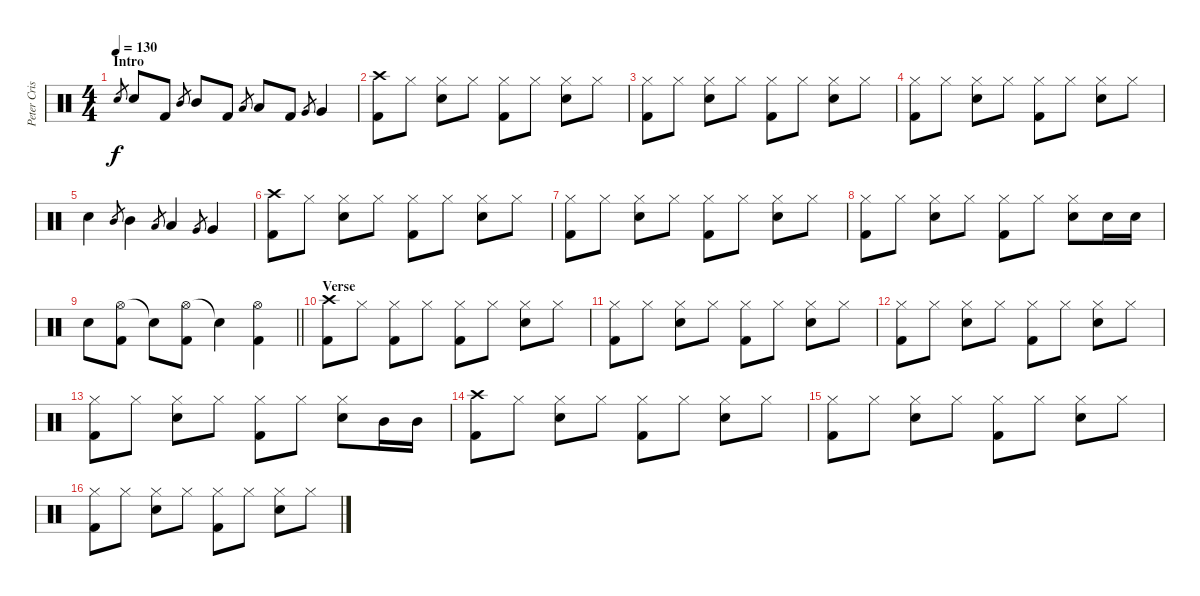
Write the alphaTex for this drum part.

\track ("Peter Criss" "Peter Cris") {instrument percussion}
\staff {score}
\articulation defaults
\ts (4 4)
\section ("" "Intro")
\tempo 130
\clef neutral
\ks c "Snare (hit) 2".8{gr dy f} "Snare (hit) 2".8 "Kick (hit) 2".8 "Mid Tom (hit)".8{gr} "Mid Tom (hit)".8 "Kick (hit) 2".8 "Low Tom (hit)".8{gr} "Low Tom (hit)".8 "Kick (hit) 2".8 "Very Low Tom (hit)".8{gr} "Very Low Tom (hit)".4
|
("Crash high (hit)" "Kick (hit) 2").8 "Hi-Hat (closed)".8 ("Hi-Hat (closed)" "Snare (hit) 2").8 "Hi-Hat (closed)".8 ("Hi-Hat (closed)" "Kick (hit) 2").8 "Hi-Hat (closed)".8 ("Hi-Hat (closed)" "Snare (hit) 2").8 "Hi-Hat (closed)".8 |
("Hi-Hat (closed)" "Kick (hit) 2").8 "Hi-Hat (closed)".8 ("Hi-Hat (closed)" "Snare (hit) 2").8 "Hi-Hat (closed)".8 ("Hi-Hat (closed)" "Kick (hit) 2").8 "Hi-Hat (closed)".8 ("Hi-Hat (closed)" "Snare (hit) 2").8 "Hi-Hat (closed)".8 |
("Hi-Hat (closed)" "Kick (hit) 2").8 "Hi-Hat (closed)".8 ("Hi-Hat (closed)" "Snare (hit) 2").8 "Hi-Hat (closed)".8 ("Hi-Hat (closed)" "Kick (hit) 2").8 "Hi-Hat (closed)".8 ("Hi-Hat (closed)" "Snare (hit) 2").8 "Hi-Hat (closed)".8 |
"Snare (hit) 2".4 "Mid Tom (hit)".8{gr} "Mid Tom (hit)".4 "Low Tom (hit)".8{gr} "Low Tom (hit)".4 "Very Low Tom (hit)".8{gr} "Very Low Tom (hit)".4 |
("Crash high (hit)" "Kick (hit) 2").8 "Hi-Hat (closed)".8 ("Hi-Hat (closed)" "Snare (hit) 2").8 "Hi-Hat (closed)".8 ("Hi-Hat (closed)" "Kick (hit) 2").8 "Hi-Hat (closed)".8 ("Hi-Hat (closed)" "Snare (hit) 2").8 "Hi-Hat (closed)".8 |
("Hi-Hat (closed)" "Kick (hit) 2").8 "Hi-Hat (closed)".8 ("Hi-Hat (closed)" "Snare (hit) 2").8 "Hi-Hat (closed)".8 ("Hi-Hat (closed)" "Kick (hit) 2").8 "Hi-Hat (closed)".8 ("Hi-Hat (closed)" "Snare (hit) 2").8 "Hi-Hat (closed)".8 |
("Hi-Hat (closed)" "Kick (hit) 2").8 "Hi-Hat (closed)".8 ("Hi-Hat (closed)" "Snare (hit) 2").8 "Hi-Hat (closed)".8 ("Hi-Hat (closed)" "Kick (hit) 2").8 "Hi-Hat (closed)".8 ("Hi-Hat (closed)" "Snare (hit) 2").8 "Snare (hit) 2".16 "Snare (hit) 2".16 |
\barLineRight lightlight "Snare (hit) 2".8
("Hi-Hat (open)" "Kick (hit) 2").8 "Snare (hit)"{t}.8 ("Hi-Hat (open)" "Kick (hit) 2").8 "Snare (hit)"{t}.4 ("Hi-Hat (open)" "Kick (hit) 2").4 |
\section ("" "Verse")
("Crash high (hit)" "Kick (hit) 2").8 "Hi-Hat (closed)".8 ("Hi-Hat (closed)" "Kick (hit) 2").8 "Hi-Hat (closed)".8 ("Hi-Hat (closed)" "Kick (hit) 2").8 "Hi-Hat (closed)".8 ("Hi-Hat (closed)" "Snare (hit) 2").8 "Hi-Hat (closed)".8 |
("Hi-Hat (closed)" "Kick (hit) 2").8 "Hi-Hat (closed)".8 ("Hi-Hat (closed)" "Snare (hit) 2").8 "Hi-Hat (closed)".8 ("Hi-Hat (closed)" "Kick (hit) 2").8 "Hi-Hat (closed)".8 ("Hi-Hat (closed)" "Snare (hit) 2").8 "Hi-Hat (closed)".8 |
("Hi-Hat (closed)" "Kick (hit) 2").8 "Hi-Hat (closed)".8 ("Hi-Hat (closed)" "Snare (hit) 2").8 "Hi-Hat (closed)".8 ("Hi-Hat (closed)" "Kick (hit) 2").8 "Hi-Hat (closed)".8 ("Hi-Hat (closed)" "Snare (hit) 2").8 "Hi-Hat (closed)".8 |
("Hi-Hat (closed)" "Kick (hit) 2").8 "Hi-Hat (closed)".8 ("Hi-Hat (closed)" "Snare (hit) 2").8 "Hi-Hat (closed)".8 ("Hi-Hat (closed)" "Kick (hit) 2").8 "Hi-Hat (closed)".8 ("Hi-Hat (closed)" "Snare (hit) 2").8 "Mid Tom (hit)".16 "Mid Tom (hit)".16 |
("Crash high (hit)" "Kick (hit) 2").8 "Hi-Hat (closed)".8 ("Hi-Hat (closed)" "Snare (hit) 2").8 "Hi-Hat (closed)".8 ("Hi-Hat (closed)" "Kick (hit) 2").8 "Hi-Hat (closed)".8 ("Hi-Hat (closed)" "Snare (hit) 2").8 "Hi-Hat (closed)".8 |
("Hi-Hat (closed)" "Kick (hit) 2").8 "Hi-Hat (closed)".8 ("Hi-Hat (closed)" "Snare (hit) 2").8 "Hi-Hat (closed)".8 ("Hi-Hat (closed)" "Kick (hit) 2").8 "Hi-Hat (closed)".8 ("Hi-Hat (closed)" "Snare (hit) 2").8 "Hi-Hat (closed)".8 |
("Hi-Hat (closed)" "Kick (hit) 2").8 "Hi-Hat (closed)".8 ("Hi-Hat (closed)" "Snare (hit) 2").8 "Hi-Hat (closed)".8 ("Hi-Hat (closed)" "Kick (hit) 2").8 "Hi-Hat (closed)".8 ("Hi-Hat (closed)" "Snare (hit) 2").8 "Hi-Hat (closed)".8
